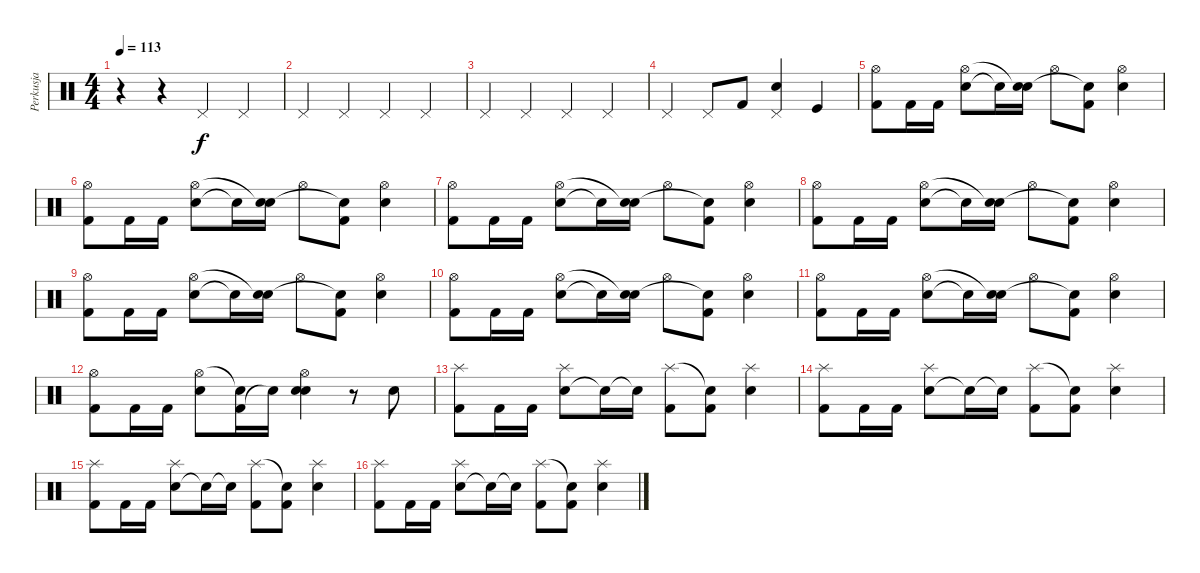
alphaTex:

\track ("Perkusja" "Perkusja") {instrument percussion}
\staff {score}
\articulation defaults
\ts (4 4)
\tempo 113
\clef neutral
\ks c
r.4{dy f} r.4 "Pedal Hi-Hat (hit)".4 "Pedal Hi-Hat (hit)".4 |
"Pedal Hi-Hat (hit)".4 "Pedal Hi-Hat (hit)".4 "Pedal Hi-Hat (hit)".4 "Pedal Hi-Hat (hit)".4 |
"Pedal Hi-Hat (hit)".4 "Pedal Hi-Hat (hit)".4 "Pedal Hi-Hat (hit)".4 "Pedal Hi-Hat (hit)".4 |
"Pedal Hi-Hat (hit)".4 "Pedal Hi-Hat (hit)".8 "Kick (hit) 2".8 ("Electric Snare (hit)" "Pedal Hi-Hat (hit)").4 "Kick (hit)".4 |
("Kick (hit) 2" "Hi-Hat (open)").8 "Kick (hit) 2".16 "Kick (hit) 2".16 ("Snare (hit) 2" "Hi-Hat (open)").8 "Snare (hit)"{t}.16 ("Snare (hit) 2" "Snare (hit)"{t}).16 "Hi-Hat (open)".8 ("Kick (hit) 2" "Snare (hit)"{t}).8 ("Snare (hit) 2" "Hi-Hat (open)").4 |
("Kick (hit) 2" "Hi-Hat (open)").8 "Kick (hit) 2".16 "Kick (hit) 2".16 ("Snare (hit) 2" "Hi-Hat (open)").8 "Snare (hit)"{t}.16 ("Snare (hit) 2" "Snare (hit)"{t}).16 "Hi-Hat (open)".8 ("Kick (hit) 2" "Snare (hit)"{t}).8 ("Snare (hit) 2" "Hi-Hat (open)").4 |
("Kick (hit) 2" "Hi-Hat (open)").8 "Kick (hit) 2".16 "Kick (hit) 2".16 ("Snare (hit) 2" "Hi-Hat (open)").8 "Snare (hit)"{t}.16 ("Snare (hit) 2" "Snare (hit)"{t}).16 "Hi-Hat (open)".8 ("Kick (hit) 2" "Snare (hit)"{t}).8 ("Snare (hit) 2" "Hi-Hat (open)").4 |
("Kick (hit) 2" "Hi-Hat (open)").8 "Kick (hit) 2".16 "Kick (hit) 2".16 ("Snare (hit) 2" "Hi-Hat (open)").8 "Snare (hit)"{t}.16 ("Snare (hit) 2" "Snare (hit)"{t}).16 "Hi-Hat (open)".8 ("Kick (hit) 2" "Snare (hit)"{t}).8 ("Snare (hit) 2" "Hi-Hat (open)").4 |
("Kick (hit) 2" "Hi-Hat (open)").8 "Kick (hit) 2".16 "Kick (hit) 2".16 ("Snare (hit) 2" "Hi-Hat (open)").8 "Snare (hit)"{t}.16 ("Snare (hit) 2" "Snare (hit)"{t}).16 "Hi-Hat (open)".8 ("Kick (hit) 2" "Snare (hit)"{t}).8 ("Snare (hit) 2" "Hi-Hat (open)").4 |
("Kick (hit) 2" "Hi-Hat (open)").8 "Kick (hit) 2".16 "Kick (hit) 2".16 ("Snare (hit) 2" "Hi-Hat (open)").8 "Snare (hit)"{t}.16 ("Snare (hit) 2" "Snare (hit)"{t}).16 "Hi-Hat (open)".8 ("Kick (hit) 2" "Snare (hit)"{t}).8 ("Snare (hit) 2" "Hi-Hat (open)").4 |
("Kick (hit) 2" "Hi-Hat (open)").8 "Kick (hit) 2".16 "Kick (hit) 2".16 ("Snare (hit) 2" "Hi-Hat (open)").8 "Snare (hit)"{t}.16 ("Snare (hit) 2" "Snare (hit)"{t}).16 "Hi-Hat (open)".8 ("Kick (hit) 2" "Snare (hit)"{t}).8 ("Snare (hit) 2" "Hi-Hat (open)").4 |
("Kick (hit) 2" "Hi-Hat (open)").8 "Kick (hit) 2".16 "Kick (hit) 2".16 ("Snare (hit) 2" "Hi-Hat (open)").8 ("Kick (hit) 2" "Snare (hit)"{t}).16 "Snare (hit)"{t}.16 ("Snare (hit) 2" "Electric Snare (hit)" "Hi-Hat (open)").4 r.8 "Snare (hit) 2".8 |
("Kick (hit) 2" "Splash (hit)").8 "Kick (hit) 2".16 "Kick (hit) 2".16 ("Snare (hit) 2" "Splash (hit)").8 "Snare (hit)"{t}.16 "Snare (hit)"{t}.16 ("Kick (hit) 2" "Splash (hit)").8 ("Kick (hit) 2" "Snare (hit)"{t}).8 ("Snare (hit) 2" "Splash (hit)").4 |
("Kick (hit) 2" "Splash (hit)").8 "Kick (hit) 2".16 "Kick (hit) 2".16 ("Snare (hit) 2" "Splash (hit)").8 "Snare (hit)"{t}.16 "Snare (hit)"{t}.16 ("Kick (hit) 2" "Splash (hit)").8 ("Kick (hit) 2" "Snare (hit)"{t}).8 ("Snare (hit) 2" "Splash (hit)").4 |
("Kick (hit) 2" "Splash (hit)").8 "Kick (hit) 2".16 "Kick (hit) 2".16 ("Snare (hit) 2" "Splash (hit)").8 "Snare (hit)"{t}.16 "Snare (hit)"{t}.16 ("Kick (hit) 2" "Splash (hit)").8 ("Kick (hit) 2" "Snare (hit)"{t}).8 ("Snare (hit) 2" "Splash (hit)").4 |
("Kick (hit) 2" "Splash (hit)").8 "Kick (hit) 2".16 "Kick (hit) 2".16 ("Snare (hit) 2" "Splash (hit)").8 "Snare (hit)"{t}.16 "Snare (hit)"{t}.16 ("Kick (hit) 2" "Splash (hit)").8 ("Kick (hit) 2" "Snare (hit)"{t}).8 ("Snare (hit) 2" "Splash (hit)").4
